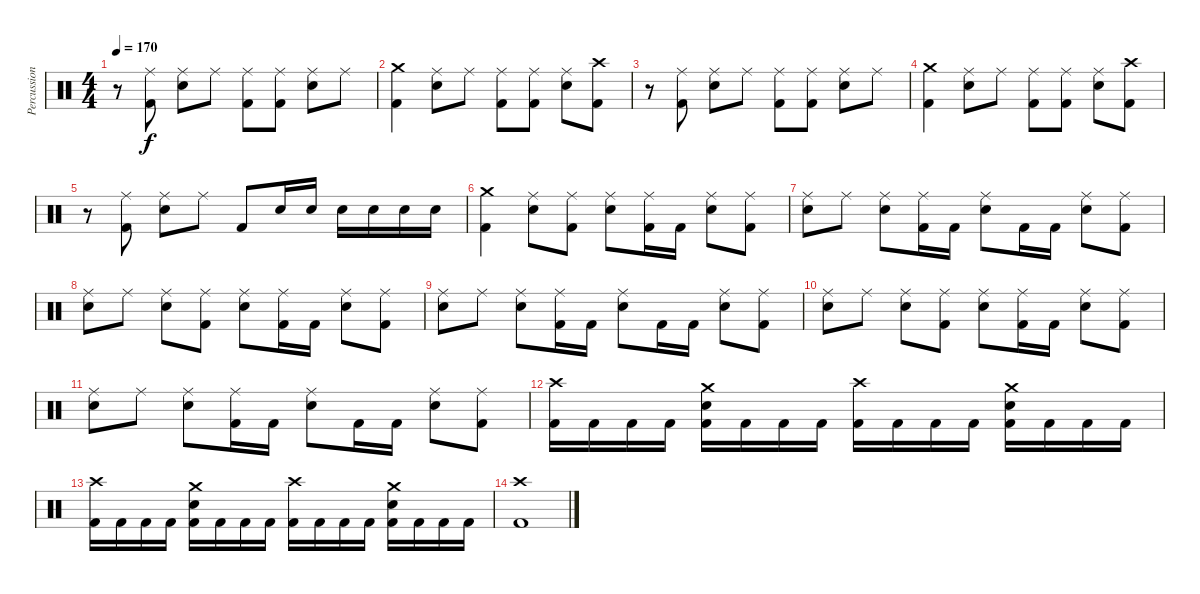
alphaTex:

\track ("Percussion" "Percussion") {instrument percussion}
\staff {score}
\articulation defaults
\ts (4 4)
\tempo 170
\clef neutral
\ks c
r.8{dy f} ("Kick (hit) 2" "Ride (middle)").8 ("Electric Snare (hit)" "Ride (middle)").8 "Ride (middle)".8 ("Kick (hit) 2" "Ride (middle)").8 ("Kick (hit) 2" "Ride (middle)").8 ("Electric Snare (hit)" "Ride (middle)").8 "Ride (middle)".8 |
("Kick (hit) 2" "Crash medium (hit)").4 ("Electric Snare (hit)" "Ride (middle)").8 "Ride (middle)".8 ("Kick (hit) 2" "Ride (middle)").8 ("Kick (hit) 2" "Ride (middle)").8 ("Electric Snare (hit)" "Ride (middle)").8 ("Kick (hit) 2" "Crash high (hit)").8 |
r.8 ("Kick (hit) 2" "Ride (middle)").8 ("Electric Snare (hit)" "Ride (middle)").8 "Ride (middle)".8 ("Kick (hit) 2" "Ride (middle)").8 ("Kick (hit) 2" "Ride (middle)").8 ("Electric Snare (hit)" "Ride (middle)").8 "Ride (middle)".8 |
("Kick (hit) 2" "Crash medium (hit)").4 ("Electric Snare (hit)" "Ride (middle)").8 "Ride (middle)".8 ("Kick (hit) 2" "Ride (middle)").8 ("Kick (hit) 2" "Ride (middle)").8 ("Electric Snare (hit)" "Ride (middle)").8 ("Kick (hit) 2" "Crash high (hit)").8 |
r.8 ("Kick (hit) 2" "Ride (middle)").8 ("Electric Snare (hit)" "Ride (middle)").8 "Ride (middle)".8 "Kick (hit) 2".8 "Electric Snare (hit)".16 "Electric Snare (hit)".16 "Electric Snare (hit)".16 "Electric Snare (hit)".16 "Electric Snare (hit)".16 "Electric Snare (hit)".16 |
("Kick (hit) 2" "Crash medium (hit)").4 ("Electric Snare (hit)" "Ride (middle)").8 ("Kick (hit) 2" "Ride (middle)").8 ("Electric Snare (hit)" "Ride (middle)").8 ("Kick (hit) 2" "Ride (middle)").16 "Kick (hit) 2".16 ("Electric Snare (hit)" "Ride (middle)").8 ("Kick (hit) 2" "Ride (middle)").8 |
("Electric Snare (hit)" "Ride (middle)").8 "Ride (middle)".8 ("Electric Snare (hit)" "Ride (middle)").8 ("Kick (hit) 2" "Ride (middle)").16 "Kick (hit) 2".16 ("Electric Snare (hit)" "Ride (middle)").8 "Kick (hit) 2".16 "Kick (hit) 2".16 ("Electric Snare (hit)" "Ride (middle)").8 ("Kick (hit) 2" "Ride (middle)").8 |
("Electric Snare (hit)" "Ride (middle)").8 "Ride (middle)".8 ("Electric Snare (hit)" "Ride (middle)").8 ("Kick (hit) 2" "Ride (middle)").8 ("Electric Snare (hit)" "Ride (middle)").8 ("Kick (hit) 2" "Ride (middle)").16 "Kick (hit) 2".16 ("Electric Snare (hit)" "Ride (middle)").8 ("Kick (hit) 2" "Ride (middle)").8 |
("Electric Snare (hit)" "Ride (middle)").8 "Ride (middle)".8 ("Electric Snare (hit)" "Ride (middle)").8 ("Kick (hit) 2" "Ride (middle)").16 "Kick (hit) 2".16 ("Electric Snare (hit)" "Ride (middle)").8 "Kick (hit) 2".16 "Kick (hit) 2".16 ("Electric Snare (hit)" "Ride (middle)").8 ("Kick (hit) 2" "Ride (middle)").8 |
("Electric Snare (hit)" "Ride (middle)").8 "Ride (middle)".8 ("Electric Snare (hit)" "Ride (middle)").8 ("Kick (hit) 2" "Ride (middle)").8 ("Electric Snare (hit)" "Ride (middle)").8 ("Kick (hit) 2" "Ride (middle)").16 "Kick (hit) 2".16 ("Electric Snare (hit)" "Ride (middle)").8 ("Kick (hit) 2" "Ride (middle)").8 |
("Electric Snare (hit)" "Ride (middle)").8 "Ride (middle)".8 ("Electric Snare (hit)" "Ride (middle)").8 ("Kick (hit) 2" "Ride (middle)").16 "Kick (hit) 2".16 ("Electric Snare (hit)" "Ride (middle)").8 "Kick (hit) 2".16 "Kick (hit) 2".16 ("Electric Snare (hit)" "Ride (middle)").8 ("Kick (hit) 2" "Ride (middle)").8 |
("Kick (hit) 2" "Crash high (hit)").16 "Kick (hit) 2".16 "Kick (hit) 2".16 "Kick (hit) 2".16 ("Kick (hit) 2" "Electric Snare (hit)" "Crash medium (hit)").16 "Kick (hit) 2".16 "Kick (hit) 2".16 "Kick (hit) 2".16 ("Kick (hit) 2" "Crash high (hit)").16 "Kick (hit) 2".16 "Kick (hit) 2".16 "Kick (hit) 2".16 ("Kick (hit) 2" "Electric Snare (hit)" "Crash medium (hit)").16 "Kick (hit) 2".16 "Kick (hit) 2".16 "Kick (hit) 2".16 |
("Kick (hit) 2" "Crash high (hit)").16 "Kick (hit) 2".16 "Kick (hit) 2".16 "Kick (hit) 2".16 ("Kick (hit) 2" "Electric Snare (hit)" "Crash medium (hit)").16 "Kick (hit) 2".16 "Kick (hit) 2".16 "Kick (hit) 2".16 ("Kick (hit) 2" "Crash high (hit)").16 "Kick (hit) 2".16 "Kick (hit) 2".16 "Kick (hit) 2".16 ("Kick (hit) 2" "Electric Snare (hit)" "Crash medium (hit)").16 "Kick (hit) 2".16 "Kick (hit) 2".16 "Kick (hit) 2".16 |
("Kick (hit) 2" "Crash high (hit)").1
